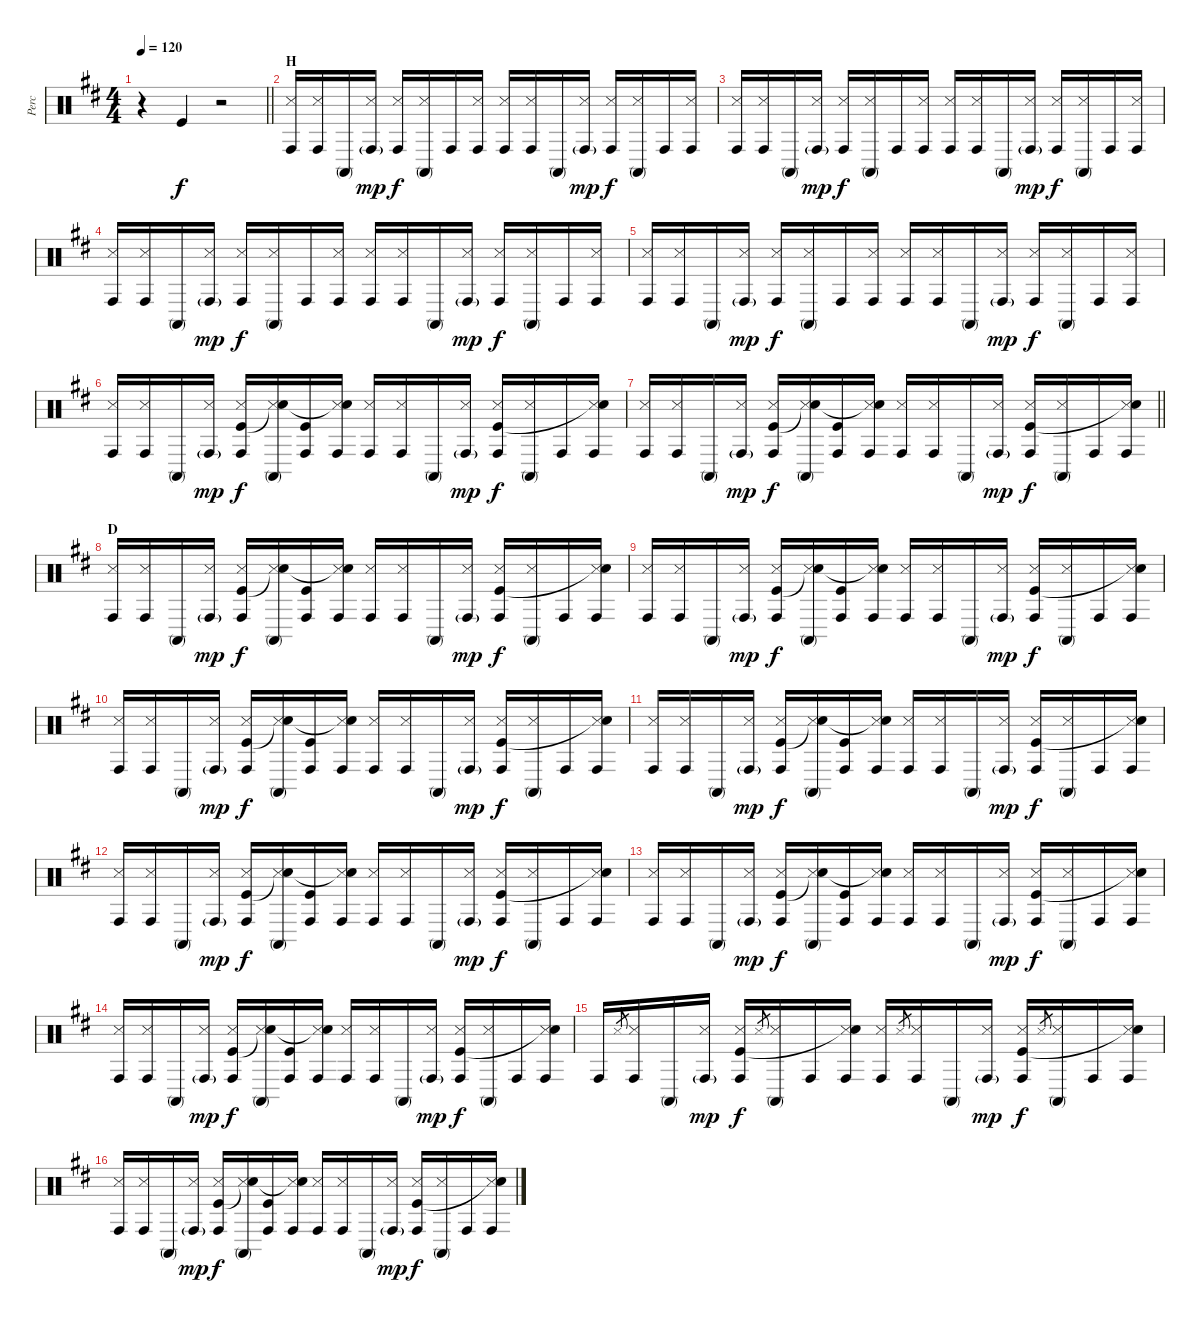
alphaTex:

\track ("Perc" "Perc") {instrument percussion}
\staff {score}
\articulation defaults
\ts (4 4)
\tempo 120
\clef neutral
\barLineRight lightlight
\ks d
r.4{dy f} "Kick (hit)".4 r.2 |
\section ("" "H")
("Conga high (hit)" "Snare (side stick) 3").16 ("Conga high (hit)" "Snare (side stick) 3").16 "Conga high (mute)".16 ("Conga high (hit)"{g} "Snare (side stick) 3").16{dy mp} ("Conga high (hit)" "Snare (side stick) 3").16{dy f} ("Conga high (mute)" "Snare (side stick) 3").16 "Conga high (hit)".16 ("Conga high (hit)" "Snare (side stick) 3").16 ("Conga high (hit)" "Snare (side stick) 3").16 ("Conga high (hit)" "Snare (side stick) 3").16 "Conga high (mute)".16 ("Conga high (hit)"{g} "Snare (side stick) 3").16{dy mp} ("Conga high (hit)" "Snare (side stick) 3").16{dy f} ("Conga high (mute)" "Snare (side stick) 3").16 "Conga high (hit)".16 ("Conga high (hit)" "Snare (side stick) 3").16 |
("Conga high (hit)" "Snare (side stick) 3").16 ("Conga high (hit)" "Snare (side stick) 3").16 "Conga high (mute)".16 ("Conga high (hit)"{g} "Snare (side stick) 3").16{dy mp} ("Conga high (hit)" "Snare (side stick) 3").16{dy f} ("Conga high (mute)" "Snare (side stick) 3").16 "Conga high (hit)".16 ("Conga high (hit)" "Snare (side stick) 3").16 ("Conga high (hit)" "Snare (side stick) 3").16 ("Conga high (hit)" "Snare (side stick) 3").16 "Conga high (mute)".16 ("Conga high (hit)"{g} "Snare (side stick) 3").16{dy mp} ("Conga high (hit)" "Snare (side stick) 3").16{dy f} ("Conga high (mute)" "Snare (side stick) 3").16 "Conga high (hit)".16 ("Conga high (hit)" "Snare (side stick) 3").16 |
("Conga high (hit)" "Snare (side stick) 3").16 ("Conga high (hit)" "Snare (side stick) 3").16 "Conga high (mute)".16 ("Conga high (hit)"{g} "Snare (side stick) 3").16{dy mp} ("Conga high (hit)" "Snare (side stick) 3").16{dy f} ("Conga high (mute)" "Snare (side stick) 3").16 "Conga high (hit)".16 ("Conga high (hit)" "Snare (side stick) 3").16 ("Conga high (hit)" "Snare (side stick) 3").16 ("Conga high (hit)" "Snare (side stick) 3").16 "Conga high (mute)".16 ("Conga high (hit)"{g} "Snare (side stick) 3").16{dy mp} ("Conga high (hit)" "Snare (side stick) 3").16{dy f} ("Conga high (mute)" "Snare (side stick) 3").16 "Conga high (hit)".16 ("Conga high (hit)" "Snare (side stick) 3").16 |
("Conga high (hit)" "Snare (side stick) 3").16 ("Conga high (hit)" "Snare (side stick) 3").16 "Conga high (mute)".16 ("Conga high (hit)"{g} "Snare (side stick) 3").16{dy mp} ("Conga high (hit)" "Snare (side stick) 3").16{dy f} ("Conga high (mute)" "Snare (side stick) 3").16 "Conga high (hit)".16 ("Conga high (hit)" "Snare (side stick) 3").16 ("Conga high (hit)" "Snare (side stick) 3").16 ("Conga high (hit)" "Snare (side stick) 3").16 "Conga high (mute)".16 ("Conga high (hit)"{g} "Snare (side stick) 3").16{dy mp} ("Conga high (hit)" "Snare (side stick) 3").16{dy f} ("Conga high (mute)" "Snare (side stick) 3").16 "Conga high (hit)".16 ("Conga high (hit)" "Snare (side stick) 3").16 |
("Conga high (hit)" "Snare (side stick) 3").16 ("Conga high (hit)" "Snare (side stick) 3").16 "Conga high (mute)".16 ("Conga high (hit)"{g} "Snare (side stick) 3").16{dy mp} ("Conga high (hit)" "Snare (side stick) 3" "Kick (hit)").16{dy f} ("Conga high (mute)" "Snare (side stick) 3" "Snare (hit)"{t}).16 ("Conga high (hit)" "Kick (hit)").16 ("Conga high (hit)" "Snare (side stick) 3" "Snare (hit)"{t}).16 ("Conga high (hit)" "Snare (side stick) 3").16 ("Conga high (hit)" "Snare (side stick) 3").16 "Conga high (mute)".16 ("Conga high (hit)"{g} "Snare (side stick) 3").16{dy mp} ("Conga high (hit)" "Snare (side stick) 3" "Kick (hit)").16{dy f} ("Conga high (mute)" "Snare (side stick) 3").16 "Conga high (hit)".16 ("Conga high (hit)" "Snare (side stick) 3" "Snare (hit)"{t}).16 |
\barLineRight lightlight
("Conga high (hit)" "Snare (side stick) 3").16 ("Conga high (hit)" "Snare (side stick) 3").16 "Conga high (mute)".16 ("Conga high (hit)"{g} "Snare (side stick) 3").16{dy mp} ("Conga high (hit)" "Snare (side stick) 3" "Kick (hit)").16{dy f} ("Conga high (mute)" "Snare (side stick) 3" "Snare (hit)"{t}).16 ("Conga high (hit)" "Kick (hit)").16 ("Conga high (hit)" "Snare (side stick) 3" "Snare (hit)"{t}).16 ("Conga high (hit)" "Snare (side stick) 3").16 ("Conga high (hit)" "Snare (side stick) 3").16 "Conga high (mute)".16 ("Conga high (hit)"{g} "Snare (side stick) 3").16{dy mp} ("Conga high (hit)" "Snare (side stick) 3" "Kick (hit)").16{dy f} ("Conga high (mute)" "Snare (side stick) 3").16 "Conga high (hit)".16 ("Conga high (hit)" "Snare (side stick) 3" "Snare (hit)"{t}).16 |
\section ("" "D")
("Conga high (hit)" "Snare (side stick) 3").16 ("Conga high (hit)" "Snare (side stick) 3").16 "Conga high (mute)".16 ("Conga high (hit)"{g} "Snare (side stick) 3").16{dy mp} ("Conga high (hit)" "Snare (side stick) 3" "Kick (hit)").16{dy f} ("Conga high (mute)" "Snare (side stick) 3" "Snare (hit)"{t}).16 ("Conga high (hit)" "Kick (hit)").16 ("Conga high (hit)" "Snare (side stick) 3" "Snare (hit)"{t}).16 ("Conga high (hit)" "Snare (side stick) 3").16 ("Conga high (hit)" "Snare (side stick) 3").16 "Conga high (mute)".16 ("Conga high (hit)"{g} "Snare (side stick) 3").16{dy mp} ("Conga high (hit)" "Snare (side stick) 3" "Kick (hit)").16{dy f} ("Conga high (mute)" "Snare (side stick) 3").16 "Conga high (hit)".16 ("Conga high (hit)" "Snare (side stick) 3" "Snare (hit)"{t}).16 |
("Conga high (hit)" "Snare (side stick) 3").16 ("Conga high (hit)" "Snare (side stick) 3").16 "Conga high (mute)".16 ("Conga high (hit)"{g} "Snare (side stick) 3").16{dy mp} ("Conga high (hit)" "Snare (side stick) 3" "Kick (hit)").16{dy f} ("Conga high (mute)" "Snare (side stick) 3" "Snare (hit)"{t}).16 ("Conga high (hit)" "Kick (hit)").16 ("Conga high (hit)" "Snare (side stick) 3" "Snare (hit)"{t}).16 ("Conga high (hit)" "Snare (side stick) 3").16 ("Conga high (hit)" "Snare (side stick) 3").16 "Conga high (mute)".16 ("Conga high (hit)"{g} "Snare (side stick) 3").16{dy mp} ("Conga high (hit)" "Snare (side stick) 3" "Kick (hit)").16{dy f} ("Conga high (mute)" "Snare (side stick) 3").16 "Conga high (hit)".16 ("Conga high (hit)" "Snare (side stick) 3" "Snare (hit)"{t}).16 |
("Conga high (hit)" "Snare (side stick) 3").16 ("Conga high (hit)" "Snare (side stick) 3").16 "Conga high (mute)".16 ("Conga high (hit)"{g} "Snare (side stick) 3").16{dy mp} ("Conga high (hit)" "Snare (side stick) 3" "Kick (hit)").16{dy f} ("Conga high (mute)" "Snare (side stick) 3" "Snare (hit)"{t}).16 ("Conga high (hit)" "Kick (hit)").16 ("Conga high (hit)" "Snare (side stick) 3" "Snare (hit)"{t}).16 ("Conga high (hit)" "Snare (side stick) 3").16 ("Conga high (hit)" "Snare (side stick) 3").16 "Conga high (mute)".16 ("Conga high (hit)"{g} "Snare (side stick) 3").16{dy mp} ("Conga high (hit)" "Snare (side stick) 3" "Kick (hit)").16{dy f} ("Conga high (mute)" "Snare (side stick) 3").16 "Conga high (hit)".16 ("Conga high (hit)" "Snare (side stick) 3" "Snare (hit)"{t}).16 |
("Conga high (hit)" "Snare (side stick) 3").16 ("Conga high (hit)" "Snare (side stick) 3").16 "Conga high (mute)".16 ("Conga high (hit)"{g} "Snare (side stick) 3").16{dy mp} ("Conga high (hit)" "Snare (side stick) 3" "Kick (hit)").16{dy f} ("Conga high (mute)" "Snare (side stick) 3" "Snare (hit)"{t}).16 ("Conga high (hit)" "Kick (hit)").16 ("Conga high (hit)" "Snare (side stick) 3" "Snare (hit)"{t}).16 ("Conga high (hit)" "Snare (side stick) 3").16 ("Conga high (hit)" "Snare (side stick) 3").16 "Conga high (mute)".16 ("Conga high (hit)"{g} "Snare (side stick) 3").16{dy mp} ("Conga high (hit)" "Snare (side stick) 3" "Kick (hit)").16{dy f} ("Conga high (mute)" "Snare (side stick) 3").16 "Conga high (hit)".16 ("Conga high (hit)" "Snare (side stick) 3" "Snare (hit)"{t}).16 |
("Conga high (hit)" "Snare (side stick) 3").16 ("Conga high (hit)" "Snare (side stick) 3").16 "Conga high (mute)".16 ("Conga high (hit)"{g} "Snare (side stick) 3").16{dy mp} ("Conga high (hit)" "Snare (side stick) 3" "Kick (hit)").16{dy f} ("Conga high (mute)" "Snare (side stick) 3" "Snare (hit)"{t}).16 ("Conga high (hit)" "Kick (hit)").16 ("Conga high (hit)" "Snare (side stick) 3" "Snare (hit)"{t}).16 ("Conga high (hit)" "Snare (side stick) 3").16 ("Conga high (hit)" "Snare (side stick) 3").16 "Conga high (mute)".16 ("Conga high (hit)"{g} "Snare (side stick) 3").16{dy mp} ("Conga high (hit)" "Snare (side stick) 3" "Kick (hit)").16{dy f} ("Conga high (mute)" "Snare (side stick) 3").16 "Conga high (hit)".16 ("Conga high (hit)" "Snare (side stick) 3" "Snare (hit)"{t}).16 |
("Conga high (hit)" "Snare (side stick) 3").16 ("Conga high (hit)" "Snare (side stick) 3").16 "Conga high (mute)".16 ("Conga high (hit)"{g} "Snare (side stick) 3").16{dy mp} ("Conga high (hit)" "Snare (side stick) 3" "Kick (hit)").16{dy f} ("Conga high (mute)" "Snare (side stick) 3" "Snare (hit)"{t}).16 ("Conga high (hit)" "Kick (hit)").16 ("Conga high (hit)" "Snare (side stick) 3" "Snare (hit)"{t}).16 ("Conga high (hit)" "Snare (side stick) 3").16 ("Conga high (hit)" "Snare (side stick) 3").16 "Conga high (mute)".16 ("Conga high (hit)"{g} "Snare (side stick) 3").16{dy mp} ("Conga high (hit)" "Snare (side stick) 3" "Kick (hit)").16{dy f} ("Conga high (mute)" "Snare (side stick) 3").16 "Conga high (hit)".16 ("Conga high (hit)" "Snare (side stick) 3" "Snare (hit)"{t}).16 |
("Conga high (hit)" "Snare (side stick) 3").16 ("Conga high (hit)" "Snare (side stick) 3").16 "Conga high (mute)".16 ("Conga high (hit)"{g} "Snare (side stick) 3").16{dy mp} ("Conga high (hit)" "Snare (side stick) 3" "Kick (hit)").16{dy f} ("Conga high (mute)" "Snare (side stick) 3" "Snare (hit)"{t}).16 ("Conga high (hit)" "Kick (hit)").16 ("Conga high (hit)" "Snare (side stick) 3" "Snare (hit)"{t}).16 ("Conga high (hit)" "Snare (side stick) 3").16 ("Conga high (hit)" "Snare (side stick) 3").16 "Conga high (mute)".16 ("Conga high (hit)"{g} "Snare (side stick) 3").16{dy mp} ("Conga high (hit)" "Snare (side stick) 3" "Kick (hit)").16{dy f} ("Conga high (mute)" "Snare (side stick) 3").16 "Conga high (hit)".16 ("Conga high (hit)" "Snare (side stick) 3" "Snare (hit)"{t}).16 |
"Conga high (hit)".16 "Snare (side stick) 3".8{gr} ("Conga high (hit)" "Snare (side stick) 3").16 "Conga high (mute)".16 ("Conga high (hit)"{g} "Snare (side stick) 3").16{dy mp} ("Conga high (hit)" "Snare (side stick) 3" "Kick (hit)").16{dy f} "Snare (side stick) 3".8{gr} ("Conga high (mute)" "Snare (side stick) 3").16 "Conga high (hit)".16 ("Conga high (hit)" "Snare (side stick) 3" "Snare (hit)"{t}).16 ("Conga high (hit)" "Snare (side stick) 3").16 "Snare (side stick) 3".8{gr} ("Conga high (hit)" "Snare (side stick) 3").16 "Conga high (mute)".16 ("Conga high (hit)"{g} "Snare (side stick) 3").16{dy mp} ("Conga high (hit)" "Snare (side stick) 3" "Kick (hit)").16{dy f} "Snare (side stick) 3".8{gr} ("Conga high (mute)" "Snare (side stick) 3").16 "Conga high (hit)".16 ("Conga high (hit)" "Snare (side stick) 3" "Snare (hit)"{t}).16 |
("Conga high (hit)" "Snare (side stick) 3").16 ("Conga high (hit)" "Snare (side stick) 3").16 "Conga high (mute)".16 ("Conga high (hit)"{g} "Snare (side stick) 3").16{dy mp} ("Conga high (hit)" "Snare (side stick) 3" "Kick (hit)").16{dy f} ("Conga high (mute)" "Snare (side stick) 3" "Snare (hit)"{t}).16 ("Conga high (hit)" "Kick (hit)").16 ("Conga high (hit)" "Snare (side stick) 3" "Snare (hit)"{t}).16 ("Conga high (hit)" "Snare (side stick) 3").16 ("Conga high (hit)" "Snare (side stick) 3").16 "Conga high (mute)".16 ("Conga high (hit)"{g} "Snare (side stick) 3").16{dy mp} ("Conga high (hit)" "Snare (side stick) 3" "Kick (hit)").16{dy f} ("Conga high (mute)" "Snare (side stick) 3").16 "Conga high (hit)".16 ("Conga high (hit)" "Snare (side stick) 3" "Snare (hit)"{t}).16
